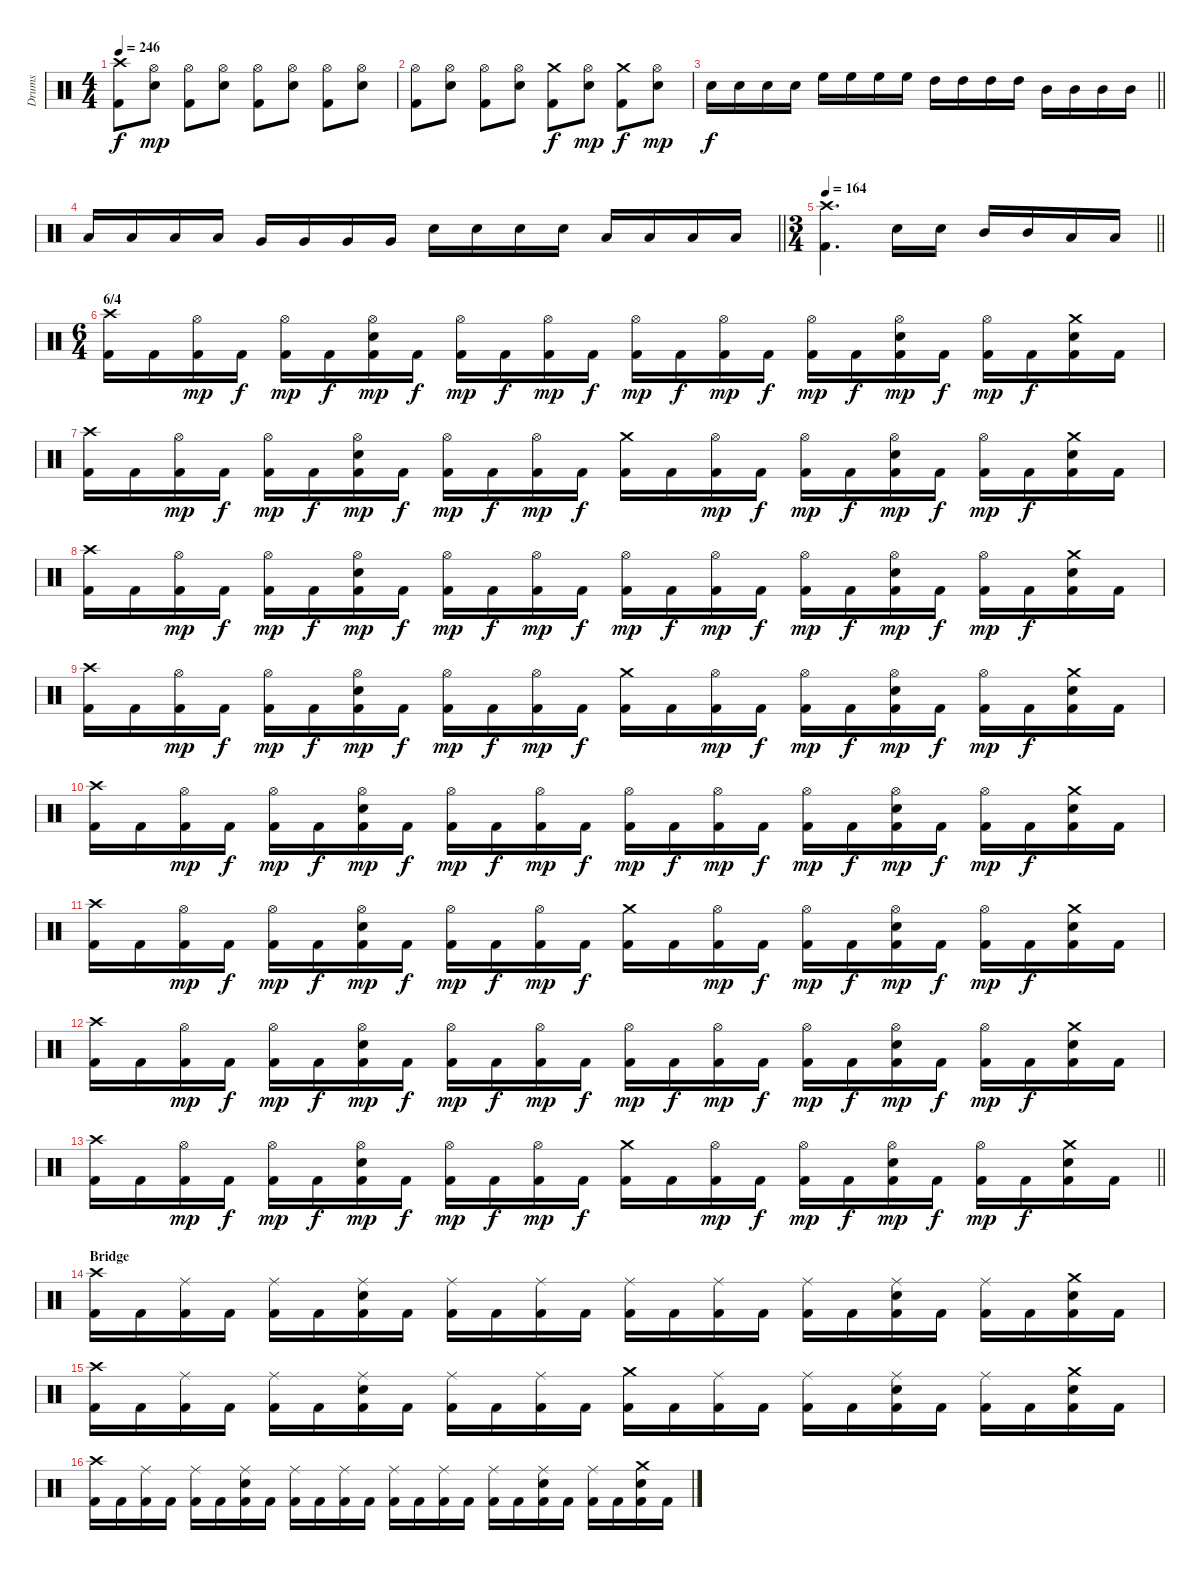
\track ("Drums" "Drums") {instrument percussion}
\staff {score}
\articulation defaults
\ts (4 4)
\tempo 246
\clef neutral
\ks c
("Crash high (hit)" "Kick (hit) 2").8{dy f} ("Hi-Hat (open)" "Snare (hit) 2").8{dy mp} ("Hi-Hat (open)" "Kick (hit) 2").8 ("Hi-Hat (open)" "Snare (hit) 2").8 ("Hi-Hat (open)" "Kick (hit) 2").8 ("Hi-Hat (open)" "Snare (hit) 2").8 ("Hi-Hat (open)" "Kick (hit) 2").8 ("Hi-Hat (open)" "Snare (hit) 2").8 |
("Hi-Hat (open)" "Kick (hit) 2").8 ("Hi-Hat (open)" "Snare (hit) 2").8 ("Hi-Hat (open)" "Kick (hit) 2").8 ("Hi-Hat (open)" "Snare (hit) 2").8 ("Crash medium (hit)" "Kick (hit) 2").8{dy f} ("Hi-Hat (open)" "Snare (hit) 2").8{dy mp} ("Crash medium (hit)" "Kick (hit) 2").8{dy f} ("Hi-Hat (open)" "Snare (hit) 2").8{dy mp} |
\barLineRight lightlight "Snare (hit) 2".16{dy f} "Snare (hit) 2".16 "Snare (hit) 2".16 "Snare (hit) 2".16 "High Floor Tom (hit)".16 "High Floor Tom (hit)".16 "High Floor Tom (hit)".16 "High Floor Tom (hit)".16 "High Tom (hit)".16 "High Tom (hit)".16 "High Tom (hit)".16 "High Tom (hit)".16 "Mid Tom (hit)".16 "Mid Tom (hit)".16 "Mid Tom (hit)".16 "Mid Tom (hit)".16
|
\barLineRight lightlight "Low Tom (hit)".16 "Low Tom (hit)".16 "Low Tom (hit)".16 "Low Tom (hit)".16 "Very Low Tom (hit)".16 "Very Low Tom (hit)".16 "Very Low Tom (hit)".16 "Very Low Tom (hit)".16 "Snare (hit) 2".16 "Snare (hit) 2".16 "Snare (hit) 2".16 "Snare (hit) 2".16 "Low Floor Tom (hit)".16 "Low Floor Tom (hit)".16 "Low Floor Tom (hit)".16 "Low Floor Tom (hit)".16
|
\ts (3 4)
\section ("" "")
\tempo 164
\barLineRight lightlight
("Crash high (hit)" "Kick (hit) 2").4{d} "Snare (hit) 2".16 "Snare (hit) 2".16 "Mid Tom (hit)".16 "Mid Tom (hit)".16 "Low Tom (hit)".16 "Low Tom (hit)".16 |
\ts (6 4)
\section ("" "6/4")
("Crash high (hit)" "Kick (hit) 2").16 "Kick (hit) 2".16 ("Hi-Hat (open)" "Kick (hit) 2").16{dy mp} "Kick (hit) 2".16{dy f} ("Hi-Hat (open)" "Kick (hit) 2").16{dy mp} "Kick (hit) 2".16{dy f} ("Hi-Hat (open)" "Snare (hit) 2" "Kick (hit) 2").16{dy mp} "Kick (hit) 2".16{dy f} ("Hi-Hat (open)" "Kick (hit) 2").16{dy mp} "Kick (hit) 2".16{dy f} ("Hi-Hat (open)" "Kick (hit) 2").16{dy mp} "Kick (hit) 2".16{dy f} ("Hi-Hat (open)" "Kick (hit) 2").16{dy mp} "Kick (hit) 2".16{dy f} ("Hi-Hat (open)" "Kick (hit) 2").16{dy mp} "Kick (hit) 2".16{dy f} ("Hi-Hat (open)" "Kick (hit) 2").16{dy mp} "Kick (hit) 2".16{dy f} ("Hi-Hat (open)" "Snare (hit) 2" "Kick (hit) 2").16{dy mp} "Kick (hit) 2".16{dy f} ("Hi-Hat (open)" "Kick (hit) 2").16{dy mp} "Kick (hit) 2".16{dy f} ("Crash medium (hit)" "Snare (hit) 2" "Kick (hit) 2").16 "Kick (hit) 2".16 |
("Crash high (hit)" "Kick (hit) 2").16 "Kick (hit) 2".16 ("Hi-Hat (open)" "Kick (hit) 2").16{dy mp} "Kick (hit) 2".16{dy f} ("Hi-Hat (open)" "Kick (hit) 2").16{dy mp} "Kick (hit) 2".16{dy f} ("Hi-Hat (open)" "Snare (hit) 2" "Kick (hit) 2").16{dy mp} "Kick (hit) 2".16{dy f} ("Hi-Hat (open)" "Kick (hit) 2").16{dy mp} "Kick (hit) 2".16{dy f} ("Hi-Hat (open)" "Kick (hit) 2").16{dy mp} "Kick (hit) 2".16{dy f} ("Crash medium (hit)" "Kick (hit) 2").16 "Kick (hit) 2".16 ("Hi-Hat (open)" "Kick (hit) 2").16{dy mp} "Kick (hit) 2".16{dy f} ("Hi-Hat (open)" "Kick (hit) 2").16{dy mp} "Kick (hit) 2".16{dy f} ("Hi-Hat (open)" "Snare (hit) 2" "Kick (hit) 2").16{dy mp} "Kick (hit) 2".16{dy f} ("Hi-Hat (open)" "Kick (hit) 2").16{dy mp} "Kick (hit) 2".16{dy f} ("Crash medium (hit)" "Snare (hit) 2" "Kick (hit) 2").16 "Kick (hit) 2".16 |
("Crash high (hit)" "Kick (hit) 2").16 "Kick (hit) 2".16 ("Hi-Hat (open)" "Kick (hit) 2").16{dy mp} "Kick (hit) 2".16{dy f} ("Hi-Hat (open)" "Kick (hit) 2").16{dy mp} "Kick (hit) 2".16{dy f} ("Hi-Hat (open)" "Snare (hit) 2" "Kick (hit) 2").16{dy mp} "Kick (hit) 2".16{dy f} ("Hi-Hat (open)" "Kick (hit) 2").16{dy mp} "Kick (hit) 2".16{dy f} ("Hi-Hat (open)" "Kick (hit) 2").16{dy mp} "Kick (hit) 2".16{dy f} ("Hi-Hat (open)" "Kick (hit) 2").16{dy mp} "Kick (hit) 2".16{dy f} ("Hi-Hat (open)" "Kick (hit) 2").16{dy mp} "Kick (hit) 2".16{dy f} ("Hi-Hat (open)" "Kick (hit) 2").16{dy mp} "Kick (hit) 2".16{dy f} ("Hi-Hat (open)" "Snare (hit) 2" "Kick (hit) 2").16{dy mp} "Kick (hit) 2".16{dy f} ("Hi-Hat (open)" "Kick (hit) 2").16{dy mp} "Kick (hit) 2".16{dy f} ("Crash medium (hit)" "Snare (hit) 2" "Kick (hit) 2").16 "Kick (hit) 2".16 |
("Crash high (hit)" "Kick (hit) 2").16 "Kick (hit) 2".16 ("Hi-Hat (open)" "Kick (hit) 2").16{dy mp} "Kick (hit) 2".16{dy f} ("Hi-Hat (open)" "Kick (hit) 2").16{dy mp} "Kick (hit) 2".16{dy f} ("Hi-Hat (open)" "Snare (hit) 2" "Kick (hit) 2").16{dy mp} "Kick (hit) 2".16{dy f} ("Hi-Hat (open)" "Kick (hit) 2").16{dy mp} "Kick (hit) 2".16{dy f} ("Hi-Hat (open)" "Kick (hit) 2").16{dy mp} "Kick (hit) 2".16{dy f} ("Crash medium (hit)" "Kick (hit) 2").16 "Kick (hit) 2".16 ("Hi-Hat (open)" "Kick (hit) 2").16{dy mp} "Kick (hit) 2".16{dy f} ("Hi-Hat (open)" "Kick (hit) 2").16{dy mp} "Kick (hit) 2".16{dy f} ("Hi-Hat (open)" "Snare (hit) 2" "Kick (hit) 2").16{dy mp} "Kick (hit) 2".16{dy f} ("Hi-Hat (open)" "Kick (hit) 2").16{dy mp} "Kick (hit) 2".16{dy f} ("Crash medium (hit)" "Snare (hit) 2" "Kick (hit) 2").16 "Kick (hit) 2".16 |
("Crash high (hit)" "Kick (hit) 2").16 "Kick (hit) 2".16 ("Hi-Hat (open)" "Kick (hit) 2").16{dy mp} "Kick (hit) 2".16{dy f} ("Hi-Hat (open)" "Kick (hit) 2").16{dy mp} "Kick (hit) 2".16{dy f} ("Hi-Hat (open)" "Snare (hit) 2" "Kick (hit) 2").16{dy mp} "Kick (hit) 2".16{dy f} ("Hi-Hat (open)" "Kick (hit) 2").16{dy mp} "Kick (hit) 2".16{dy f} ("Hi-Hat (open)" "Kick (hit) 2").16{dy mp} "Kick (hit) 2".16{dy f} ("Hi-Hat (open)" "Kick (hit) 2").16{dy mp} "Kick (hit) 2".16{dy f} ("Hi-Hat (open)" "Kick (hit) 2").16{dy mp} "Kick (hit) 2".16{dy f} ("Hi-Hat (open)" "Kick (hit) 2").16{dy mp} "Kick (hit) 2".16{dy f} ("Hi-Hat (open)" "Snare (hit) 2" "Kick (hit) 2").16{dy mp} "Kick (hit) 2".16{dy f} ("Hi-Hat (open)" "Kick (hit) 2").16{dy mp} "Kick (hit) 2".16{dy f} ("Crash medium (hit)" "Snare (hit) 2" "Kick (hit) 2").16 "Kick (hit) 2".16 |
("Crash high (hit)" "Kick (hit) 2").16 "Kick (hit) 2".16 ("Hi-Hat (open)" "Kick (hit) 2").16{dy mp} "Kick (hit) 2".16{dy f} ("Hi-Hat (open)" "Kick (hit) 2").16{dy mp} "Kick (hit) 2".16{dy f} ("Hi-Hat (open)" "Snare (hit) 2" "Kick (hit) 2").16{dy mp} "Kick (hit) 2".16{dy f} ("Hi-Hat (open)" "Kick (hit) 2").16{dy mp} "Kick (hit) 2".16{dy f} ("Hi-Hat (open)" "Kick (hit) 2").16{dy mp} "Kick (hit) 2".16{dy f} ("Crash medium (hit)" "Kick (hit) 2").16 "Kick (hit) 2".16 ("Hi-Hat (open)" "Kick (hit) 2").16{dy mp} "Kick (hit) 2".16{dy f} ("Hi-Hat (open)" "Kick (hit) 2").16{dy mp} "Kick (hit) 2".16{dy f} ("Hi-Hat (open)" "Snare (hit) 2" "Kick (hit) 2").16{dy mp} "Kick (hit) 2".16{dy f} ("Hi-Hat (open)" "Kick (hit) 2").16{dy mp} "Kick (hit) 2".16{dy f} ("Crash medium (hit)" "Snare (hit) 2" "Kick (hit) 2").16 "Kick (hit) 2".16 |
("Crash high (hit)" "Kick (hit) 2").16 "Kick (hit) 2".16 ("Hi-Hat (open)" "Kick (hit) 2").16{dy mp} "Kick (hit) 2".16{dy f} ("Hi-Hat (open)" "Kick (hit) 2").16{dy mp} "Kick (hit) 2".16{dy f} ("Hi-Hat (open)" "Snare (hit) 2" "Kick (hit) 2").16{dy mp} "Kick (hit) 2".16{dy f} ("Hi-Hat (open)" "Kick (hit) 2").16{dy mp} "Kick (hit) 2".16{dy f} ("Hi-Hat (open)" "Kick (hit) 2").16{dy mp} "Kick (hit) 2".16{dy f} ("Hi-Hat (open)" "Kick (hit) 2").16{dy mp} "Kick (hit) 2".16{dy f} ("Hi-Hat (open)" "Kick (hit) 2").16{dy mp} "Kick (hit) 2".16{dy f} ("Hi-Hat (open)" "Kick (hit) 2").16{dy mp} "Kick (hit) 2".16{dy f} ("Hi-Hat (open)" "Snare (hit) 2" "Kick (hit) 2").16{dy mp} "Kick (hit) 2".16{dy f} ("Hi-Hat (open)" "Kick (hit) 2").16{dy mp} "Kick (hit) 2".16{dy f} ("Crash medium (hit)" "Snare (hit) 2" "Kick (hit) 2").16 "Kick (hit) 2".16 |
\barLineRight lightlight
("Crash high (hit)" "Kick (hit) 2").16 "Kick (hit) 2".16 ("Hi-Hat (open)" "Kick (hit) 2").16{dy mp} "Kick (hit) 2".16{dy f} ("Hi-Hat (open)" "Kick (hit) 2").16{dy mp} "Kick (hit) 2".16{dy f} ("Hi-Hat (open)" "Snare (hit) 2" "Kick (hit) 2").16{dy mp} "Kick (hit) 2".16{dy f} ("Hi-Hat (open)" "Kick (hit) 2").16{dy mp} "Kick (hit) 2".16{dy f} ("Hi-Hat (open)" "Kick (hit) 2").16{dy mp} "Kick (hit) 2".16{dy f} ("Crash medium (hit)" "Kick (hit) 2").16 "Kick (hit) 2".16 ("Hi-Hat (open)" "Kick (hit) 2").16{dy mp} "Kick (hit) 2".16{dy f} ("Hi-Hat (open)" "Kick (hit) 2").16{dy mp} "Kick (hit) 2".16{dy f} ("Hi-Hat (open)" "Snare (hit) 2" "Kick (hit) 2").16{dy mp} "Kick (hit) 2".16{dy f} ("Hi-Hat (open)" "Kick (hit) 2").16{dy mp} "Kick (hit) 2".16{dy f} ("Crash medium (hit)" "Snare (hit) 2" "Kick (hit) 2").16 "Kick (hit) 2".16 |
\section ("" "Bridge")
("Crash high (hit)" "Kick (hit) 2").16 "Kick (hit) 2".16 ("Ride (middle)" "Kick (hit) 2").16 "Kick (hit) 2".16 ("Ride (middle)" "Kick (hit) 2").16 "Kick (hit) 2".16 ("Ride (middle)" "Snare (hit) 2" "Kick (hit) 2").16 "Kick (hit) 2".16 ("Ride (middle)" "Kick (hit) 2").16 "Kick (hit) 2".16 ("Ride (middle)" "Kick (hit) 2").16 "Kick (hit) 2".16 ("Ride (middle)" "Kick (hit) 2").16 "Kick (hit) 2".16 ("Ride (middle)" "Kick (hit) 2").16 "Kick (hit) 2".16 ("Ride (middle)" "Kick (hit) 2").16 "Kick (hit) 2".16 ("Ride (middle)" "Snare (hit) 2" "Kick (hit) 2").16 "Kick (hit) 2".16 ("Ride (middle)" "Kick (hit) 2").16 "Kick (hit) 2".16 ("Crash medium (hit)" "Snare (hit) 2" "Kick (hit) 2").16 "Kick (hit) 2".16 |
("Crash high (hit)" "Kick (hit) 2").16 "Kick (hit) 2".16 ("Ride (middle)" "Kick (hit) 2").16 "Kick (hit) 2".16 ("Ride (middle)" "Kick (hit) 2").16 "Kick (hit) 2".16 ("Ride (middle)" "Snare (hit) 2" "Kick (hit) 2").16 "Kick (hit) 2".16 ("Ride (middle)" "Kick (hit) 2").16 "Kick (hit) 2".16 ("Ride (middle)" "Kick (hit) 2").16 "Kick (hit) 2".16 ("Crash medium (hit)" "Kick (hit) 2").16 "Kick (hit) 2".16 ("Ride (middle)" "Kick (hit) 2").16 "Kick (hit) 2".16 ("Ride (middle)" "Kick (hit) 2").16 "Kick (hit) 2".16 ("Ride (middle)" "Snare (hit) 2" "Kick (hit) 2").16 "Kick (hit) 2".16 ("Ride (middle)" "Kick (hit) 2").16 "Kick (hit) 2".16 ("Crash medium (hit)" "Snare (hit) 2" "Kick (hit) 2").16 "Kick (hit) 2".16 |
("Crash high (hit)" "Kick (hit) 2").16 "Kick (hit) 2".16 ("Ride (middle)" "Kick (hit) 2").16 "Kick (hit) 2".16 ("Ride (middle)" "Kick (hit) 2").16 "Kick (hit) 2".16 ("Ride (middle)" "Snare (hit) 2" "Kick (hit) 2").16 "Kick (hit) 2".16 ("Ride (middle)" "Kick (hit) 2").16 "Kick (hit) 2".16 ("Ride (middle)" "Kick (hit) 2").16 "Kick (hit) 2".16 ("Ride (middle)" "Kick (hit) 2").16 "Kick (hit) 2".16 ("Ride (middle)" "Kick (hit) 2").16 "Kick (hit) 2".16 ("Ride (middle)" "Kick (hit) 2").16 "Kick (hit) 2".16 ("Ride (middle)" "Snare (hit) 2" "Kick (hit) 2").16 "Kick (hit) 2".16 ("Ride (middle)" "Kick (hit) 2").16 "Kick (hit) 2".16 ("Crash medium (hit)" "Snare (hit) 2" "Kick (hit) 2").16 "Kick (hit) 2".16
